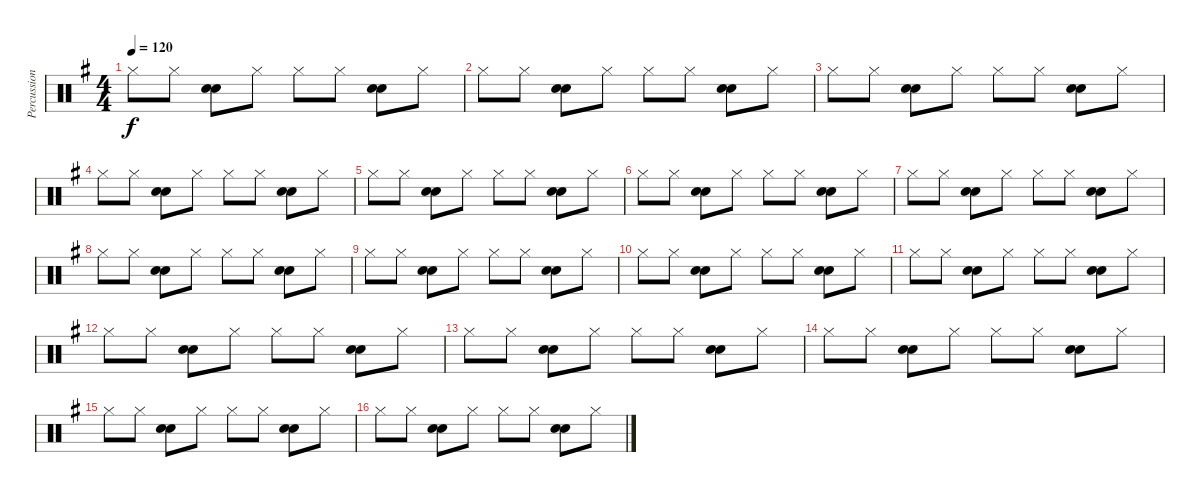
\track ("Percussions" "Percussion") {instrument percussion}
\staff {score}
\articulation defaults
\ts (4 4)
\tempo 120
\clef neutral
\ks g "Hi-Hat (closed)".8{dy f} "Hi-Hat (closed)".8
("Snare (hit) 2" "Electric Snare (hit)").8 "Hi-Hat (closed)".8 "Hi-Hat (closed)".8 "Hi-Hat (closed)".8 ("Snare (hit) 2" "Electric Snare (hit)").8 "Hi-Hat (closed)".8 |
"Hi-Hat (closed)".8 "Hi-Hat (closed)".8 ("Snare (hit) 2" "Electric Snare (hit)").8 "Hi-Hat (closed)".8 "Hi-Hat (closed)".8 "Hi-Hat (closed)".8 ("Snare (hit) 2" "Electric Snare (hit)").8 "Hi-Hat (closed)".8 |
"Hi-Hat (closed)".8 "Hi-Hat (closed)".8 ("Snare (hit) 2" "Electric Snare (hit)").8 "Hi-Hat (closed)".8 "Hi-Hat (closed)".8 "Hi-Hat (closed)".8 ("Snare (hit) 2" "Electric Snare (hit)").8 "Hi-Hat (closed)".8 |
"Hi-Hat (closed)".8 "Hi-Hat (closed)".8 ("Snare (hit) 2" "Electric Snare (hit)").8 "Hi-Hat (closed)".8 "Hi-Hat (closed)".8 "Hi-Hat (closed)".8 ("Snare (hit) 2" "Electric Snare (hit)").8 "Hi-Hat (closed)".8 |
"Hi-Hat (closed)".8 "Hi-Hat (closed)".8 ("Snare (hit) 2" "Electric Snare (hit)").8 "Hi-Hat (closed)".8 "Hi-Hat (closed)".8 "Hi-Hat (closed)".8 ("Snare (hit) 2" "Electric Snare (hit)").8 "Hi-Hat (closed)".8 |
"Hi-Hat (closed)".8 "Hi-Hat (closed)".8 ("Snare (hit) 2" "Electric Snare (hit)").8 "Hi-Hat (closed)".8 "Hi-Hat (closed)".8 "Hi-Hat (closed)".8 ("Snare (hit) 2" "Electric Snare (hit)").8 "Hi-Hat (closed)".8 |
"Hi-Hat (closed)".8 "Hi-Hat (closed)".8 ("Snare (hit) 2" "Electric Snare (hit)").8 "Hi-Hat (closed)".8 "Hi-Hat (closed)".8 "Hi-Hat (closed)".8 ("Snare (hit) 2" "Electric Snare (hit)").8 "Hi-Hat (closed)".8 |
"Hi-Hat (closed)".8 "Hi-Hat (closed)".8 ("Snare (hit) 2" "Electric Snare (hit)").8 "Hi-Hat (closed)".8 "Hi-Hat (closed)".8 "Hi-Hat (closed)".8 ("Snare (hit) 2" "Electric Snare (hit)").8 "Hi-Hat (closed)".8 |
"Hi-Hat (closed)".8 "Hi-Hat (closed)".8 ("Snare (hit) 2" "Electric Snare (hit)").8 "Hi-Hat (closed)".8 "Hi-Hat (closed)".8 "Hi-Hat (closed)".8 ("Snare (hit) 2" "Electric Snare (hit)").8 "Hi-Hat (closed)".8 |
"Hi-Hat (closed)".8 "Hi-Hat (closed)".8 ("Snare (hit) 2" "Electric Snare (hit)").8 "Hi-Hat (closed)".8 "Hi-Hat (closed)".8 "Hi-Hat (closed)".8 ("Snare (hit) 2" "Electric Snare (hit)").8 "Hi-Hat (closed)".8 |
"Hi-Hat (closed)".8 "Hi-Hat (closed)".8 ("Snare (hit) 2" "Electric Snare (hit)").8 "Hi-Hat (closed)".8 "Hi-Hat (closed)".8 "Hi-Hat (closed)".8 ("Snare (hit) 2" "Electric Snare (hit)").8 "Hi-Hat (closed)".8 |
"Hi-Hat (closed)".8 "Hi-Hat (closed)".8 ("Snare (hit) 2" "Electric Snare (hit)").8 "Hi-Hat (closed)".8 "Hi-Hat (closed)".8 "Hi-Hat (closed)".8 ("Snare (hit) 2" "Electric Snare (hit)").8 "Hi-Hat (closed)".8 |
"Hi-Hat (closed)".8 "Hi-Hat (closed)".8 ("Snare (hit) 2" "Electric Snare (hit)").8 "Hi-Hat (closed)".8 "Hi-Hat (closed)".8 "Hi-Hat (closed)".8 ("Snare (hit) 2" "Electric Snare (hit)").8 "Hi-Hat (closed)".8 |
"Hi-Hat (closed)".8 "Hi-Hat (closed)".8 ("Snare (hit) 2" "Electric Snare (hit)").8 "Hi-Hat (closed)".8 "Hi-Hat (closed)".8 "Hi-Hat (closed)".8 ("Snare (hit) 2" "Electric Snare (hit)").8 "Hi-Hat (closed)".8 |
"Hi-Hat (closed)".8 "Hi-Hat (closed)".8 ("Snare (hit) 2" "Electric Snare (hit)").8 "Hi-Hat (closed)".8 "Hi-Hat (closed)".8 "Hi-Hat (closed)".8 ("Snare (hit) 2" "Electric Snare (hit)").8 "Hi-Hat (closed)".8 |
"Hi-Hat (closed)".8 "Hi-Hat (closed)".8 ("Snare (hit) 2" "Electric Snare (hit)").8 "Hi-Hat (closed)".8 "Hi-Hat (closed)".8 "Hi-Hat (closed)".8 ("Snare (hit) 2" "Electric Snare (hit)").8 "Hi-Hat (closed)".8
